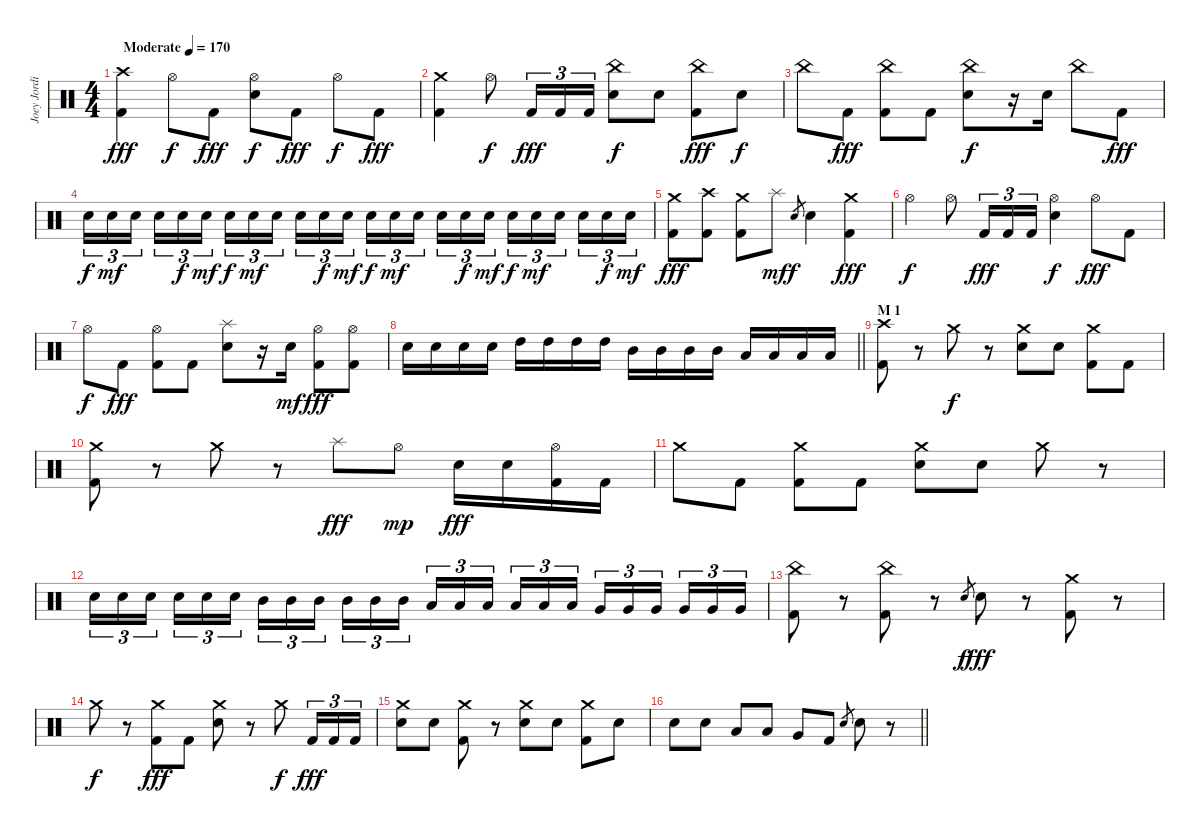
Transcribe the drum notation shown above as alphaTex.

\track ("Joey Jordison" "Joey Jordi") {instrument percussion}
\staff {score}
\articulation defaults
\ts (4 4)
\tempo (170 "Moderate")
\clef neutral
\ks c
("Crash high (hit)" "Kick (hit) 2").4{dy fff} "Hi-Hat (open)".8{dy f} "Kick (hit) 2".8{dy fff} ("Hi-Hat (open)" "Electric Snare (hit)").8{dy f} "Kick (hit) 2".8{dy fff} "Hi-Hat (open)".8{dy f} "Kick (hit) 2".8{dy fff} |
("Crash medium (hit)" "Kick (hit) 2").4 "Hi-Hat (open)".8{dy f} "Kick (hit) 2".16{tu (3 2) dy fff} "Kick (hit) 2".16{tu (3 2)} "Kick (hit) 2".16{tu (3 2)} ("China (hit)" "Electric Snare (hit)").8{dy f} "Electric Snare (hit)".8 ("China (hit)" "Kick (hit) 2").8{dy fff} "Electric Snare (hit)".8{dy f} |
"China (hit)".8 "Kick (hit) 2".8{dy fff} ("China (hit)" "Kick (hit) 2").8 "Kick (hit) 2".8 ("China (hit)" "Electric Snare (hit)").8{dy f} r.16 "Electric Snare (hit)".16 "China (hit)".8 "Kick (hit) 2".8{dy fff} |
"Electric Snare (hit)".16{tu (3 2) dy f} "Electric Snare (hit)".16{tu (3 2) dy mf} "Electric Snare (hit)".16{tu (3 2) beam splitsecondary} "Electric Snare (hit)".16{tu (3 2)} "Electric Snare (hit)".16{tu (3 2) dy f} "Electric Snare (hit)".16{tu (3 2) dy mf} "Electric Snare (hit)".16{tu (3 2) dy f} "Electric Snare (hit)".16{tu (3 2) dy mf} "Electric Snare (hit)".16{tu (3 2) beam splitsecondary} "Electric Snare (hit)".16{tu (3 2)} "Electric Snare (hit)".16{tu (3 2) dy f} "Electric Snare (hit)".16{tu (3 2) dy mf} "Electric Snare (hit)".16{tu (3 2) dy f} "Electric Snare (hit)".16{tu (3 2) dy mf} "Electric Snare (hit)".16{tu (3 2) beam splitsecondary} "Electric Snare (hit)".16{tu (3 2)} "Electric Snare (hit)".16{tu (3 2) dy f} "Electric Snare (hit)".16{tu (3 2) dy mf} "Electric Snare (hit)".16{tu (3 2) dy f} "Electric Snare (hit)".16{tu (3 2) dy mf} "Electric Snare (hit)".16{tu (3 2) beam splitsecondary} "Electric Snare (hit)".16{tu (3 2)} "Electric Snare (hit)".16{tu (3 2) dy f} "Electric Snare (hit)".16{tu (3 2) dy mf} |
("Crash medium (hit)" "Kick (hit) 2").8{dy fff} ("Crash high (hit)" "Kick (hit) 2").8 ("Crash medium (hit)" "Kick (hit) 2").8 "Splash (hit)".8{dy mf} "Electric Snare (hit)".8{gr dy f} "Electric Snare (hit)".4 ("Crash medium (hit)" "Kick (hit) 2").4{dy fff} |
"Hi-Hat (open)".4{dy f} "Hi-Hat (open)".8 "Kick (hit) 2".16{tu (3 2) dy fff} "Kick (hit) 2".16{tu (3 2)} "Kick (hit) 2".16{tu (3 2)} ("Hi-Hat (open)" "Electric Snare (hit)").4{dy f} "Hi-Hat (open)".8{dy fff} "Kick (hit) 2".8 |
"Hi-Hat (open)".8{dy f} "Kick (hit) 2".8{dy fff} ("Hi-Hat (open)" "Kick (hit) 2").8 "Kick (hit) 2".8 ("Splash (hit)" "Electric Snare (hit)").8 r.16 "Electric Snare (hit)".16{dy mf} ("Hi-Hat (open)" "Kick (hit) 2").8{dy fff} ("Hi-Hat (open)" "Kick (hit) 2").8 |
\barLineRight lightlight "Electric Snare (hit)".16 "Electric Snare (hit)".16 "Electric Snare (hit)".16 "Electric Snare (hit)".16 "High Tom (hit)".16 "High Tom (hit)".16 "High Tom (hit)".16 "High Tom (hit)".16 "Mid Tom (hit)".16 "Mid Tom (hit)".16 "Mid Tom (hit)".16 "Mid Tom (hit)".16 "Low Tom (hit)".16 "Low Tom (hit)".16 "Low Tom (hit)".16 "Low Tom (hit)".16
|
\section ("" "M 1")
("Crash high (hit)" "Kick (hit) 2").8 r.8 "Crash medium (hit)".8{dy f} r.8 ("Crash medium (hit)" "Electric Snare (hit)").8 "Electric Snare (hit)".8 ("Crash medium (hit)" "Kick (hit) 2").8 "Kick (hit) 2".8 |
("Crash medium (hit)" "Kick (hit) 2").8 r.8 "Crash medium (hit)".8 r.8 "Splash (hit)".8{dy fff} "Hi-Hat (open)".8{dy mp} "Electric Snare (hit)".16{dy fff} "Electric Snare (hit)".16 ("Hi-Hat (open)" "Kick (hit) 2").16 "Kick (hit) 2".16 |
"Crash medium (hit)".8 "Kick (hit) 2".8 ("Crash medium (hit)" "Kick (hit) 2").8 "Kick (hit) 2".8 ("Crash medium (hit)" "Electric Snare (hit)").8 "Electric Snare (hit)".8 "Crash medium (hit)".8 r.8 |
"Electric Snare (hit)".16{tu (3 2)} "Electric Snare (hit)".16{tu (3 2)} "Electric Snare (hit)".16{tu (3 2) beam splitsecondary} "Electric Snare (hit)".16{tu (3 2)} "Electric Snare (hit)".16{tu (3 2)} "Electric Snare (hit)".16{tu (3 2)} "Mid Tom (hit)".16{tu (3 2)} "Mid Tom (hit)".16{tu (3 2)} "Mid Tom (hit)".16{tu (3 2) beam splitsecondary} "Mid Tom (hit)".16{tu (3 2)} "Mid Tom (hit)".16{tu (3 2)} "Mid Tom (hit)".16{tu (3 2)} "Low Tom (hit)".16{tu (3 2)} "Low Tom (hit)".16{tu (3 2)} "Low Tom (hit)".16{tu (3 2) beam splitsecondary} "Low Tom (hit)".16{tu (3 2)} "Low Tom (hit)".16{tu (3 2)} "Low Tom (hit)".16{tu (3 2)} "Very Low Tom (hit)".16{tu (3 2)} "Very Low Tom (hit)".16{tu (3 2)} "Very Low Tom (hit)".16{tu (3 2) beam splitsecondary} "Very Low Tom (hit)".16{tu (3 2)} "Very Low Tom (hit)".16{tu (3 2)} "Very Low Tom (hit)".16{tu (3 2)} |
("China (hit)" "Kick (hit) 2").8 r.8 ("China (hit)" "Kick (hit) 2").8 r.8 "Electric Snare (hit)".8{gr dy f} "Electric Snare (hit)".8{dy fff} r.8 ("Crash medium (hit)" "Kick (hit) 2").8 r.8 |
"Crash medium (hit)".8{dy f} r.8 ("Crash medium (hit)" "Kick (hit) 2").8{dy fff} "Kick (hit) 2".8 ("Crash medium (hit)" "Electric Snare (hit)").8 r.8 "Crash medium (hit)".8{dy f} "Kick (hit) 2".16{tu (3 2) dy fff} "Kick (hit) 2".16{tu (3 2)} "Kick (hit) 2".16{tu (3 2)} |
("Crash medium (hit)" "Electric Snare (hit)").8 "Electric Snare (hit)".8 ("Crash medium (hit)" "Kick (hit) 2").8 r.8 ("Crash medium (hit)" "Electric Snare (hit)").8 "Electric Snare (hit)".8 ("Crash medium (hit)" "Kick (hit) 2").8 "Electric Snare (hit)".8 |
\barLineRight lightlight "Electric Snare (hit)".8 "Electric Snare (hit)".8 "Low Tom (hit)".8 "Low Tom (hit)".8 "Very Low Tom (hit)".8 "Kick (hit) 2".8 "Electric Snare (hit)".8{gr} "Electric Snare (hit)".8
r.8
